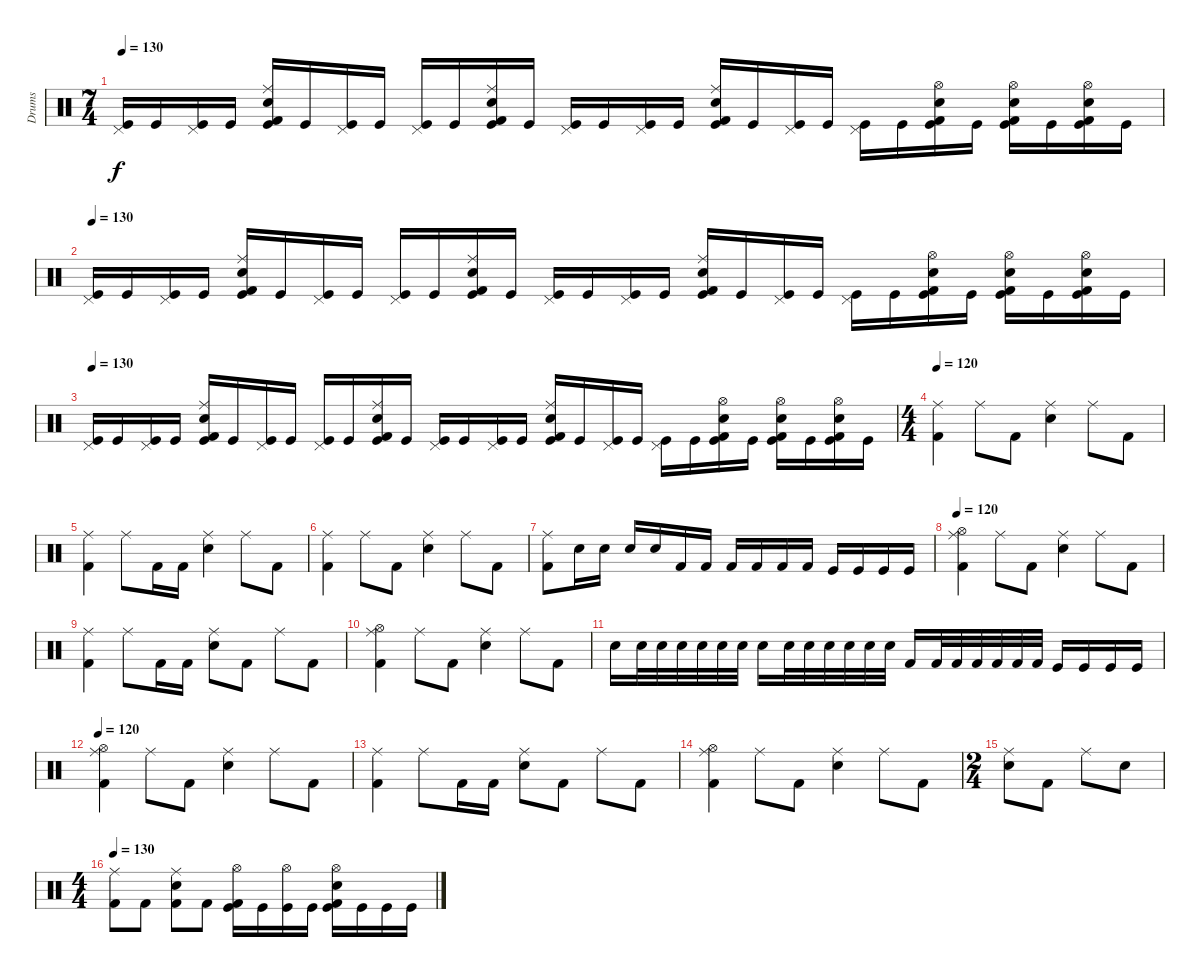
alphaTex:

\track ("Drums" "Drums") {instrument percussion}
\staff {score}
\articulation defaults
\ts (7 4)
\tempo 130
\clef neutral
\ks c
("Pedal Hi-Hat (hit)" "Kick (hit)").16{dy f} "Kick (hit)".16 ("Pedal Hi-Hat (hit)" "Kick (hit)").16 "Kick (hit)".16 ("Ride (middle)" "Electric Snare (hit)" "Kick (hit) 2" "Kick (hit)").16 "Kick (hit)".16 ("Pedal Hi-Hat (hit)" "Kick (hit)").16 "Kick (hit)".16 ("Pedal Hi-Hat (hit)" "Kick (hit)").16 "Kick (hit)".16 ("Ride (middle)" "Electric Snare (hit)" "Kick (hit) 2" "Kick (hit)").16 "Kick (hit)".16 ("Pedal Hi-Hat (hit)" "Kick (hit)").16 "Kick (hit)".16 ("Pedal Hi-Hat (hit)" "Kick (hit)").16 "Kick (hit)".16 ("Ride (middle)" "Electric Snare (hit)" "Kick (hit) 2" "Kick (hit)").16 "Kick (hit)".16 ("Pedal Hi-Hat (hit)" "Kick (hit)").16 "Kick (hit)".16 ("Pedal Hi-Hat (hit)" "Kick (hit)").16 "Kick (hit)".16 ("Hi-Hat (open)" "Electric Snare (hit)" "Kick (hit) 2" "Kick (hit)").16 "Kick (hit)".16 ("Hi-Hat (open)" "Electric Snare (hit)" "Kick (hit) 2" "Kick (hit)").16 "Kick (hit)".16 ("Hi-Hat (open)" "Electric Snare (hit)" "Kick (hit) 2" "Kick (hit)").16 "Kick (hit)".16 |
\tempo 130
("Pedal Hi-Hat (hit)" "Kick (hit)").16 "Kick (hit)".16 ("Pedal Hi-Hat (hit)" "Kick (hit)").16 "Kick (hit)".16 ("Ride (middle)" "Electric Snare (hit)" "Kick (hit) 2" "Kick (hit)").16 "Kick (hit)".16 ("Pedal Hi-Hat (hit)" "Kick (hit)").16 "Kick (hit)".16 ("Pedal Hi-Hat (hit)" "Kick (hit)").16 "Kick (hit)".16 ("Ride (middle)" "Electric Snare (hit)" "Kick (hit) 2" "Kick (hit)").16 "Kick (hit)".16 ("Pedal Hi-Hat (hit)" "Kick (hit)").16 "Kick (hit)".16 ("Pedal Hi-Hat (hit)" "Kick (hit)").16 "Kick (hit)".16 ("Ride (middle)" "Electric Snare (hit)" "Kick (hit) 2" "Kick (hit)").16 "Kick (hit)".16 ("Pedal Hi-Hat (hit)" "Kick (hit)").16 "Kick (hit)".16 ("Pedal Hi-Hat (hit)" "Kick (hit)").16 "Kick (hit)".16 ("Hi-Hat (open)" "Electric Snare (hit)" "Kick (hit) 2" "Kick (hit)").16 "Kick (hit)".16 ("Hi-Hat (open)" "Electric Snare (hit)" "Kick (hit) 2" "Kick (hit)").16 "Kick (hit)".16 ("Hi-Hat (open)" "Electric Snare (hit)" "Kick (hit) 2" "Kick (hit)").16 "Kick (hit)".16 |
\tempo 130
("Pedal Hi-Hat (hit)" "Kick (hit)").16 "Kick (hit)".16 ("Pedal Hi-Hat (hit)" "Kick (hit)").16 "Kick (hit)".16 ("Ride (middle)" "Electric Snare (hit)" "Kick (hit) 2" "Kick (hit)").16 "Kick (hit)".16 ("Pedal Hi-Hat (hit)" "Kick (hit)").16 "Kick (hit)".16 ("Pedal Hi-Hat (hit)" "Kick (hit)").16 "Kick (hit)".16 ("Ride (middle)" "Electric Snare (hit)" "Kick (hit) 2" "Kick (hit)").16 "Kick (hit)".16 ("Pedal Hi-Hat (hit)" "Kick (hit)").16 "Kick (hit)".16 ("Pedal Hi-Hat (hit)" "Kick (hit)").16 "Kick (hit)".16 ("Ride (middle)" "Electric Snare (hit)" "Kick (hit) 2" "Kick (hit)").16 "Kick (hit)".16 ("Pedal Hi-Hat (hit)" "Kick (hit)").16 "Kick (hit)".16 ("Pedal Hi-Hat (hit)" "Kick (hit)").16 "Kick (hit)".16 ("Hi-Hat (open)" "Electric Snare (hit)" "Kick (hit) 2" "Kick (hit)").16 "Kick (hit)".16 ("Hi-Hat (open)" "Electric Snare (hit)" "Kick (hit) 2" "Kick (hit)").16 "Kick (hit)".16 ("Hi-Hat (open)" "Electric Snare (hit)" "Kick (hit) 2" "Kick (hit)").16 "Kick (hit)".16 |
\ts (4 4)
\tempo 120
("Ride (middle)" "Kick (hit) 2").4 "Ride (middle)".8 "Kick (hit) 2".8 ("Ride (middle)" "Electric Snare (hit)").4 "Ride (middle)".8 "Kick (hit) 2".8 |
("Ride (middle)" "Kick (hit) 2").4 "Ride (middle)".8 "Kick (hit) 2".16 "Kick (hit) 2".16 ("Ride (middle)" "Electric Snare (hit)").4 "Ride (middle)".8 "Kick (hit) 2".8 |
("Ride (middle)" "Kick (hit) 2").4 "Ride (middle)".8 "Kick (hit) 2".8 ("Ride (middle)" "Electric Snare (hit)").4 "Ride (middle)".8 "Kick (hit) 2".8 |
("Ride (middle)" "Kick (hit) 2").8 "Electric Snare (hit)".16 "Electric Snare (hit)".16 "Electric Snare (hit)".16 "Electric Snare (hit)".16 "Kick (hit) 2".16 "Kick (hit) 2".16 "Kick (hit) 2".16 "Kick (hit) 2".16 "Kick (hit) 2".16 "Kick (hit) 2".16 "Kick (hit)".16 "Kick (hit)".16 "Kick (hit)".16 "Kick (hit)".16 |
\tempo 120
("Ride (middle)" "Hi-Hat (open)" "Kick (hit) 2").4 "Ride (middle)".8 "Kick (hit) 2".8 ("Ride (middle)" "Electric Snare (hit)").4 "Ride (middle)".8 "Kick (hit) 2".8 |
("Ride (middle)" "Kick (hit) 2").4 "Ride (middle)".8 "Kick (hit) 2".16 "Kick (hit) 2".16 ("Ride (middle)" "Electric Snare (hit)").8 "Kick (hit) 2".8 "Ride (middle)".8 "Kick (hit) 2".8 |
("Ride (middle)" "Hi-Hat (open)" "Kick (hit) 2").4 "Ride (middle)".8 "Kick (hit) 2".8 ("Ride (middle)" "Electric Snare (hit)").4 "Ride (middle)".8 "Kick (hit) 2".8 |
"Electric Snare (hit)".16 "Electric Snare (hit)".32 "Electric Snare (hit)".32 "Electric Snare (hit)".32 "Electric Snare (hit)".32 "Electric Snare (hit)".32 "Electric Snare (hit)".32 "Snare (hit) 2".16 "Snare (hit) 2".32 "Snare (hit) 2".32 "Snare (hit) 2".32 "Snare (hit) 2".32 "Snare (hit) 2".32 "Snare (hit) 2".32 "Kick (hit) 2".16 "Kick (hit) 2".32 "Kick (hit) 2".32 "Kick (hit) 2".32 "Kick (hit) 2".32 "Kick (hit) 2".32 "Kick (hit) 2".32 "Kick (hit)".16 "Kick (hit)".16 "Kick (hit)".16 "Kick (hit)".16 |
\tempo 120
("Ride (middle)" "Hi-Hat (open)" "Kick (hit) 2").4 "Ride (middle)".8 "Kick (hit) 2".8 ("Ride (middle)" "Electric Snare (hit)").4 "Ride (middle)".8 "Kick (hit) 2".8 |
("Ride (middle)" "Kick (hit) 2").4 "Ride (middle)".8 "Kick (hit) 2".16 "Kick (hit) 2".16 ("Ride (middle)" "Electric Snare (hit)").8 "Kick (hit) 2".8 "Ride (middle)".8 "Kick (hit) 2".8 |
("Ride (middle)" "Hi-Hat (open)" "Kick (hit) 2").4 "Ride (middle)".8 "Kick (hit) 2".8 ("Ride (middle)" "Electric Snare (hit)").4 "Ride (middle)".8 "Kick (hit) 2".8 |
\ts (2 4)
("Ride (middle)" "Electric Snare (hit)").8 "Kick (hit) 2".8 "Ride (middle)".8 "Electric Snare (hit)".8 |
\ts (4 4)
\tempo 130
("Ride (middle)" "Kick (hit) 2").8 "Kick (hit) 2".8 ("Ride (middle)" "Electric Snare (hit)" "Kick (hit) 2").8 "Kick (hit) 2".8 ("Hi-Hat (open)" "Kick (hit) 2" "Kick (hit)").16 "Kick (hit)".16 ("Hi-Hat (open)" "Kick (hit)").16 "Kick (hit)".16 ("Hi-Hat (open)" "Electric Snare (hit)" "Kick (hit) 2" "Kick (hit)").16 "Kick (hit)".16 "Kick (hit)".16 "Kick (hit)".16
